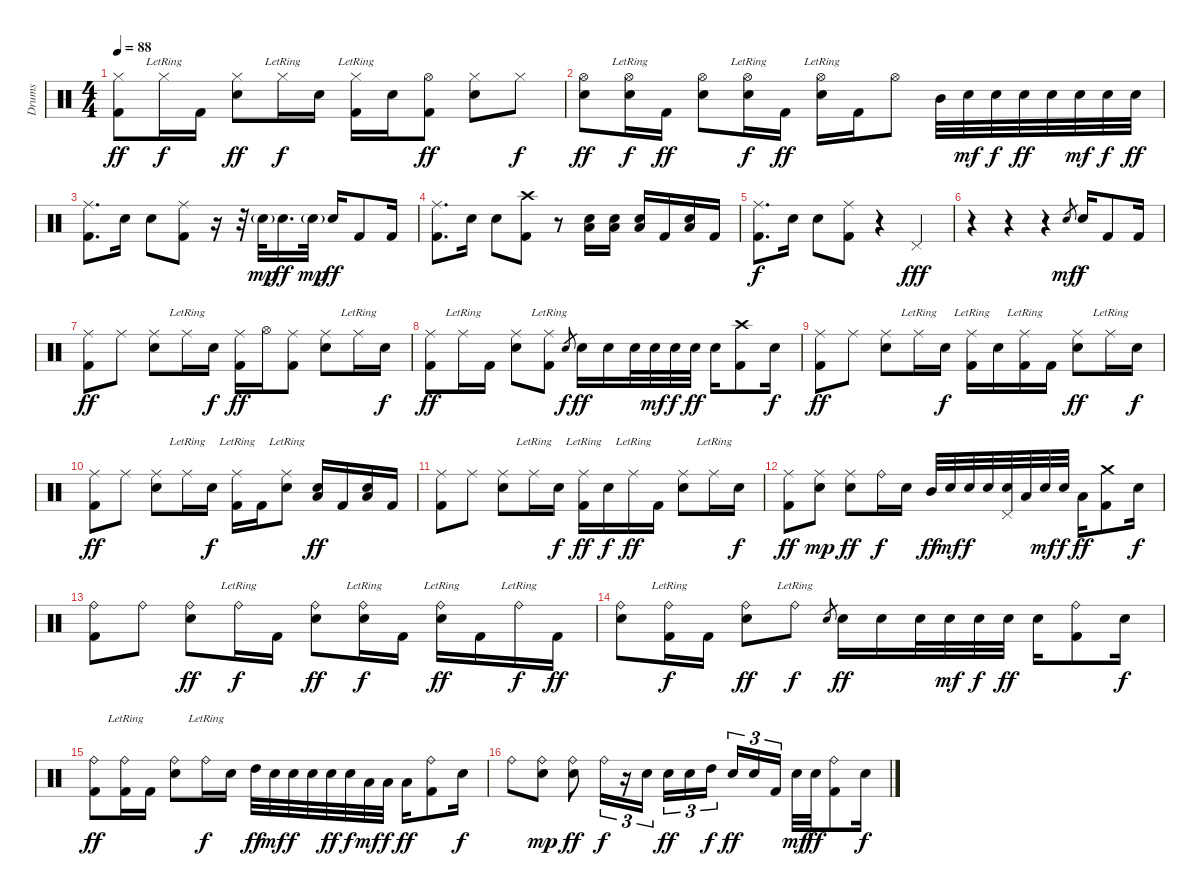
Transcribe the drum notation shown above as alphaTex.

\track ("Drums" "Drums") {instrument percussion}
\staff {score}
\articulation defaults
\ts (4 4)
\tempo 88
\clef neutral
\ks c
("Hi-Hat (closed)" "Kick (hit) 2").8{dy ff} "Hi-Hat (closed)"{lr}.16{dy f} "Kick (hit) 2".16 ("Hi-Hat (closed)" "Electric Snare (hit)").8{dy ff} "Hi-Hat (closed)"{lr}.16{dy f} "Electric Snare (hit)".16 ("Hi-Hat (closed)"{lr} "Kick (hit) 2").16 "Electric Snare (hit)".16 ("Hi-Hat (open)" "Kick (hit) 2").8{dy ff} ("Hi-Hat (closed)" "Electric Snare (hit)").8 "Hi-Hat (closed)".8{dy f} |
("Hi-Hat (open)" "Electric Snare (hit)").8{dy ff} ("Hi-Hat (open)"{lr} "Electric Snare (hit)").16{dy f} "Kick (hit) 2".16{dy ff} ("Hi-Hat (open)" "Electric Snare (hit)").8 ("Hi-Hat (open)"{lr} "Electric Snare (hit)").16{dy f} "Kick (hit) 2".16{dy ff} ("Hi-Hat (open)"{lr} "Electric Snare (hit)").16 "Kick (hit) 2".16 "Hi-Hat (open)".8 "Mid Tom (hit)".32 "Electric Snare (hit)".32{dy mf} "Electric Snare (hit)".32{dy f} "Electric Snare (hit)".32{dy ff} "Electric Snare (hit)".32 "Electric Snare (hit)".32{dy mf} "Electric Snare (hit)".32{dy f} "Electric Snare (hit)".32{dy ff} |
("Ride (middle)" "Kick (hit) 2").8{d} "Electric Snare (hit)".16 "Electric Snare (hit)".8 ("Ride (middle)" "Kick (hit) 2").8 r.16 r.32 "Electric Snare (hit)"{g}.32{dy mp} "Electric Snare (hit)".16{d dy ff} "Electric Snare (hit)"{g}.32{dy mp} "Electric Snare (hit)".16{dy ff} "Kick (hit) 2".8 "Kick (hit) 2".16 |
("Ride (middle)" "Kick (hit) 2").8{d} "Electric Snare (hit)".16 "Electric Snare (hit)".8 ("Crash high (hit)" "Kick (hit) 2").8 r.8 ("Electric Snare (hit)" "Low Tom (hit)").16 ("Electric Snare (hit)" "Low Tom (hit)").16 ("Electric Snare (hit)" "Low Tom (hit)").16 "Kick (hit) 2".16 ("Electric Snare (hit)" "Low Tom (hit)").16 "Kick (hit) 2".16 |
("Ride (middle)" "Kick (hit) 2").8{d dy f} "Electric Snare (hit)".16 "Electric Snare (hit)".8 ("Ride (middle)" "Kick (hit) 2").8 r.4 "Pedal Hi-Hat (hit)".4{dy fff} |
r.4 r.4 r.4 "Electric Snare (hit)".8{gr dy mf} "Electric Snare (hit)".16{dy f} "Kick (hit) 2".8 "Kick (hit) 2".16 |
("Ride (middle)" "Kick (hit) 2").8{dy ff} "Ride (middle)".8 ("Ride (middle)" "Electric Snare (hit)").8 "Ride (middle)"{lr}.16 "Electric Snare (hit)".16{dy f} ("Ride (middle)" "Kick (hit) 2").16{dy ff} "Hi-Hat (open)".16 ("Ride (middle)" "Kick (hit) 2").8 ("Ride (middle)" "Electric Snare (hit)").8 "Ride (middle)"{lr}.16 "Electric Snare (hit)".16{dy f} |
("Ride (middle)" "Kick (hit) 2").8{dy ff} "Ride (middle)"{lr}.16 "Kick (hit) 2".16 ("Ride (middle)" "Electric Snare (hit)").8 ("Ride (middle)"{lr} "Kick (hit) 2").8 "Electric Snare (hit)".8{gr dy f} "Electric Snare (hit)".16{dy ff} "Electric Snare (hit)".16 "Electric Snare (hit)".32 "Electric Snare (hit)".32{dy mf} "Electric Snare (hit)".32{dy f} "Electric Snare (hit)".32{dy ff} "Electric Snare (hit)".16 ("Crash high (hit)" "Kick (hit) 2").8 "Electric Snare (hit)".16{dy f} |
("Ride (middle)" "Kick (hit) 2").8{dy ff} "Ride (middle)".8 ("Ride (middle)" "Electric Snare (hit)").8 "Ride (middle)"{lr}.16 "Electric Snare (hit)".16{dy f} ("Ride (middle)"{lr} "Kick (hit) 2").16 "Electric Snare (hit)".16 ("Ride (middle)"{lr} "Kick (hit) 2").16 "Kick (hit) 2".16 ("Ride (middle)" "Electric Snare (hit)").8{dy ff} "Ride (middle)"{lr}.16 "Electric Snare (hit)".16{dy f} |
("Ride (middle)" "Kick (hit) 2").8{dy ff} "Ride (middle)".8 ("Ride (middle)" "Electric Snare (hit)").8 "Ride (middle)"{lr}.16 "Electric Snare (hit)".16{dy f} ("Ride (middle)"{lr} "Kick (hit) 2").16 "Kick (hit) 2".16 ("Ride (middle)"{lr} "Electric Snare (hit)").8 ("Electric Snare (hit)" "Low Tom (hit)").16{dy ff} "Kick (hit) 2".16 ("Electric Snare (hit)" "Low Tom (hit)").16 "Kick (hit) 2".16 |
("Ride (middle)" "Kick (hit) 2").8 "Ride (middle)".8 ("Ride (middle)" "Electric Snare (hit)").8 "Ride (middle)"{lr}.16 "Electric Snare (hit)".16{dy f} ("Ride (middle)"{lr} "Kick (hit) 2").16{dy ff} "Electric Snare (hit)".16{dy f} "Ride (middle)"{lr}.16{dy ff} "Kick (hit) 2".16 ("Ride (middle)" "Electric Snare (hit)").8 "Ride (middle)"{lr}.16 "Electric Snare (hit)".16{dy f} |
("Ride (middle)" "Kick (hit) 2").8{dy ff} ("Ride (middle)" "Electric Snare (hit)").8{dy mp} ("Ride (middle)" "Electric Snare (hit)").8{dy ff} "Ride (bell)".16{dy f} "Electric Snare (hit)".16 "Mid Tom (hit)".32{dy ff} "Electric Snare (hit)".32{dy mf} "Electric Snare (hit)".32{dy f} "Electric Snare (hit)".32 ("Electric Snare (hit)" "Pedal Hi-Hat (hit)").32 "Low Tom (hit)".32 "Electric Snare (hit)".32{dy mf} "Electric Snare (hit)".32{dy f} "Low Tom (hit)".16{dy ff} ("Crash medium (hit)" "Kick (hit) 2").8 "Electric Snare (hit)".16{dy f} |
("Ride (bell)" "Kick (hit) 2").8 "Ride (bell)".8 ("Ride (bell)" "Electric Snare (hit)").8{dy ff} "Ride (bell)"{lr}.16{dy f} "Kick (hit) 2".16 ("Ride (bell)" "Electric Snare (hit)").8{dy ff} ("Ride (bell)"{lr} "Electric Snare (hit)").16{dy f} "Kick (hit) 2".16 ("Ride (bell)"{lr} "Electric Snare (hit)").16{dy ff} "Kick (hit) 2".16 "Ride (bell)"{lr}.16{dy f} "Kick (hit) 2".16{dy ff} |
("Ride (bell)" "Electric Snare (hit)").8 ("Ride (bell)"{lr} "Kick (hit) 2").16{dy f} "Kick (hit) 2".16 ("Ride (bell)" "Electric Snare (hit)").8{dy ff} "Ride (bell)"{lr}.8{dy f} "Electric Snare (hit)".8{gr} "Electric Snare (hit)".16{dy ff} "Electric Snare (hit)".16 "Electric Snare (hit)".32 "Electric Snare (hit)".32{dy mf} "Electric Snare (hit)".32{dy f} "Electric Snare (hit)".32{dy ff} "Electric Snare (hit)".16 ("Ride (bell)" "Kick (hit) 2").8 "Electric Snare (hit)".16{dy f} |
("Ride (bell)" "Kick (hit) 2").8{dy ff} ("Ride (bell)"{lr} "Kick (hit) 2").16 "Kick (hit) 2".16 ("Ride (bell)" "Electric Snare (hit)").8 "Ride (bell)"{lr}.16{dy f} "Electric Snare (hit)".16 "High Tom (hit)".32{dy ff} "Electric Snare (hit)".32{dy mf} "Electric Snare (hit)".32{dy f} "Electric Snare (hit)".32 "Electric Snare (hit)".32{dy ff} "Electric Snare (hit)".32{dy f} "Low Tom (hit)".32{dy mf} "Low Tom (hit)".32{dy f} "Low Tom (hit)".16{dy ff} ("Ride (bell)" "Kick (hit) 2").8 "Electric Snare (hit)".16{dy f} |
"Ride (bell)".8 ("Ride (bell)" "Electric Snare (hit)").8{dy mp} ("Ride (bell)" "Electric Snare (hit)").8{dy ff} "Ride (bell)".16{tu (3 2) dy f} r.16{tu (3 2)} "Electric Snare (hit)".16{tu (3 2)} "Electric Snare (hit)".16{tu (3 2) dy ff} "Electric Snare (hit)".16{tu (3 2)} "High Tom (hit)".16{tu (3 2) dy f} "Electric Snare (hit)".16{tu (3 2) dy ff} "Electric Snare (hit)".16{tu (3 2)} "Kick (hit) 2".16{tu (3 2)} "Electric Snare (hit)".32{dy mf} "Electric Snare (hit)".32{dy ff} ("Ride (bell)" "Kick (hit) 2").8 "Electric Snare (hit)".16{dy f}
